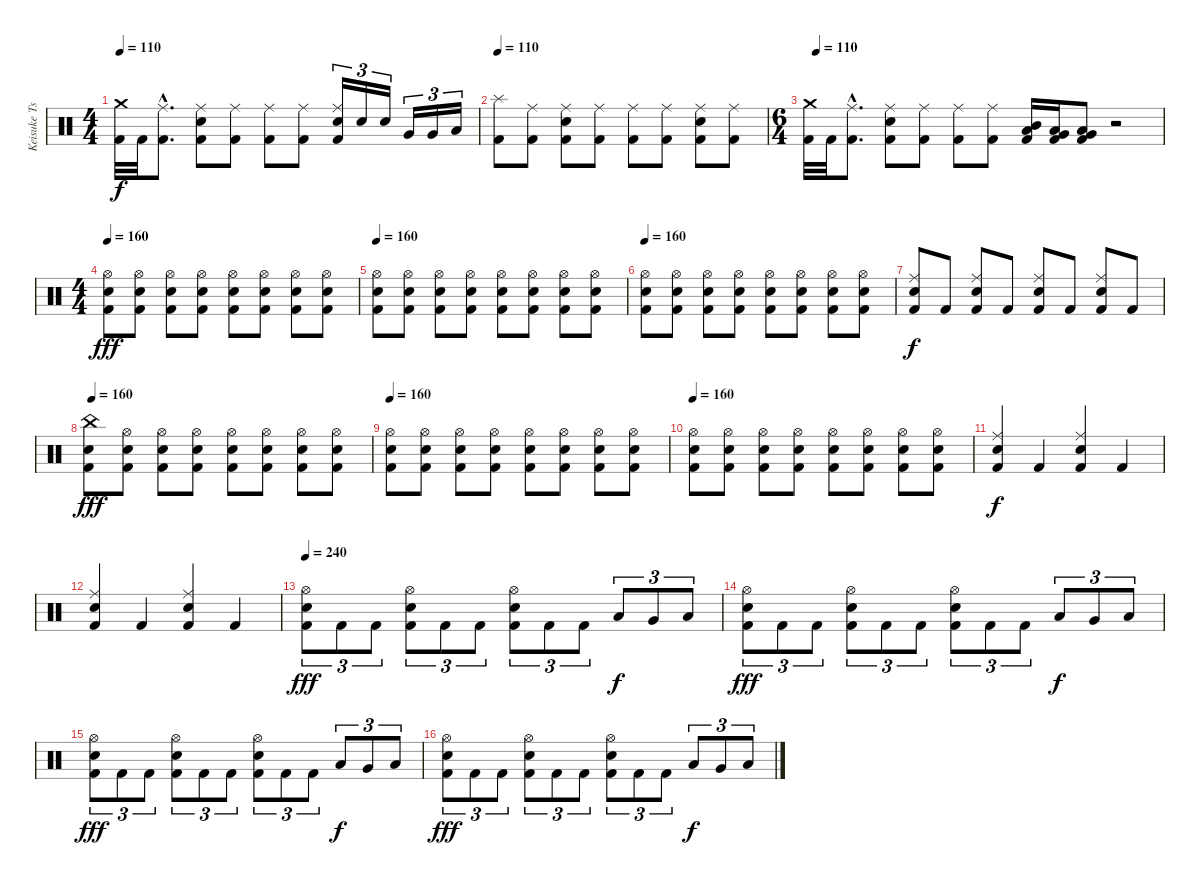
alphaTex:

\track ("Keisuke Tsuboi" "Keisuke Ts") {instrument percussion}
\staff {score}
\articulation defaults
\ts (4 4)
\tempo 110
\clef neutral
\ks c
("Crash medium (hit)" "Kick (hit) 2").32{dy f} "Kick (hit) 2".32 ("Ride (middle)"{hac} "Kick (hit) 2"{hac}).8{d} ("Ride (middle)" "Electric Snare (hit)" "Kick (hit) 2").8 ("Ride (middle)" "Kick (hit) 2").8 ("Ride (middle)" "Kick (hit) 2").8 ("Ride (middle)" "Kick (hit) 2").8 ("Ride (middle)" "Electric Snare (hit)" "Kick (hit) 2").16{tu (3 2)} "Electric Snare (hit)".16{tu (3 2)} "Electric Snare (hit)".16{tu (3 2)} "Very Low Tom (hit)".16{tu (3 2)} "Very Low Tom (hit)".16{tu (3 2)} "Low Floor Tom (hit)".16{tu (3 2)} |
\tempo 110
("Splash (hit)" "Kick (hit) 2").8 ("Ride (middle)" "Kick (hit) 2").8 ("Ride (middle)" "Electric Snare (hit)" "Kick (hit) 2").8 ("Ride (middle)" "Kick (hit) 2").8 ("Ride (middle)" "Kick (hit) 2").8 ("Ride (middle)" "Kick (hit) 2").8 ("Ride (middle)" "Electric Snare (hit)" "Kick (hit) 2").8 ("Ride (middle)" "Kick (hit) 2").8 |
\ts (6 4)
\tempo (110 0.020833333333333332)
("Crash medium (hit)" "Kick (hit) 2").32 "Kick (hit) 2".32 ("Ride (middle)"{hac} "Kick (hit) 2"{hac}).8{d} ("Ride (middle)" "Electric Snare (hit)" "Kick (hit) 2").8 ("Ride (middle)" "Kick (hit) 2").8 ("Ride (middle)" "Kick (hit) 2").8 ("Ride (middle)" "Kick (hit) 2").8 ("Kick (hit) 2" "Mid Tom (hit)" "Low Tom (hit)").16 ("Kick (hit) 2" "Low Tom (hit)" "Very Low Tom (hit)").16 ("Kick (hit) 2" "Very Low Tom (hit)" "Low Floor Tom (hit)").8 r.2 |
\ts (4 4)
\tempo 160
("Hi-Hat (open)" "Electric Snare (hit)" "Kick (hit) 2").8{dy fff} ("Hi-Hat (open)" "Electric Snare (hit)" "Kick (hit) 2").8 ("Hi-Hat (open)" "Electric Snare (hit)" "Kick (hit) 2").8 ("Hi-Hat (open)" "Electric Snare (hit)" "Kick (hit) 2").8 ("Hi-Hat (open)" "Electric Snare (hit)" "Kick (hit) 2").8 ("Hi-Hat (open)" "Electric Snare (hit)" "Kick (hit) 2").8 ("Hi-Hat (open)" "Electric Snare (hit)" "Kick (hit) 2").8 ("Hi-Hat (open)" "Electric Snare (hit)" "Kick (hit) 2").8 |
\tempo 160
("Hi-Hat (open)" "Electric Snare (hit)" "Kick (hit) 2").8 ("Hi-Hat (open)" "Electric Snare (hit)" "Kick (hit) 2").8 ("Hi-Hat (open)" "Electric Snare (hit)" "Kick (hit) 2").8 ("Hi-Hat (open)" "Electric Snare (hit)" "Kick (hit) 2").8 ("Hi-Hat (open)" "Electric Snare (hit)" "Kick (hit) 2").8 ("Hi-Hat (open)" "Electric Snare (hit)" "Kick (hit) 2").8 ("Hi-Hat (open)" "Electric Snare (hit)" "Kick (hit) 2").8 ("Hi-Hat (open)" "Electric Snare (hit)" "Kick (hit) 2").8 |
\tempo 160
("Hi-Hat (open)" "Electric Snare (hit)" "Kick (hit) 2").8 ("Hi-Hat (open)" "Electric Snare (hit)" "Kick (hit) 2").8 ("Hi-Hat (open)" "Electric Snare (hit)" "Kick (hit) 2").8 ("Hi-Hat (open)" "Electric Snare (hit)" "Kick (hit) 2").8 ("Hi-Hat (open)" "Electric Snare (hit)" "Kick (hit) 2").8 ("Hi-Hat (open)" "Electric Snare (hit)" "Kick (hit) 2").8 ("Hi-Hat (open)" "Electric Snare (hit)" "Kick (hit) 2").8 ("Hi-Hat (open)" "Electric Snare (hit)" "Kick (hit) 2").8 |
("Ride (middle)" "Electric Snare (hit)" "Kick (hit) 2").8{dy f} "Kick (hit) 2".8 ("Ride (middle)" "Electric Snare (hit)" "Kick (hit) 2").8 "Kick (hit) 2".8 ("Ride (middle)" "Electric Snare (hit)" "Kick (hit) 2").8 "Kick (hit) 2".8 ("Ride (middle)" "Electric Snare (hit)" "Kick (hit) 2").8 "Kick (hit) 2".8 |
\tempo 160
("China (hit)" "Electric Snare (hit)" "Kick (hit) 2").8{dy fff} ("Hi-Hat (open)" "Electric Snare (hit)" "Kick (hit) 2").8 ("Hi-Hat (open)" "Electric Snare (hit)" "Kick (hit) 2").8 ("Hi-Hat (open)" "Electric Snare (hit)" "Kick (hit) 2").8 ("Hi-Hat (open)" "Electric Snare (hit)" "Kick (hit) 2").8 ("Hi-Hat (open)" "Electric Snare (hit)" "Kick (hit) 2").8 ("Hi-Hat (open)" "Electric Snare (hit)" "Kick (hit) 2").8 ("Hi-Hat (open)" "Electric Snare (hit)" "Kick (hit) 2").8 |
\tempo 160
("Hi-Hat (open)" "Electric Snare (hit)" "Kick (hit) 2").8 ("Hi-Hat (open)" "Electric Snare (hit)" "Kick (hit) 2").8 ("Hi-Hat (open)" "Electric Snare (hit)" "Kick (hit) 2").8 ("Hi-Hat (open)" "Electric Snare (hit)" "Kick (hit) 2").8 ("Hi-Hat (open)" "Electric Snare (hit)" "Kick (hit) 2").8 ("Hi-Hat (open)" "Electric Snare (hit)" "Kick (hit) 2").8 ("Hi-Hat (open)" "Electric Snare (hit)" "Kick (hit) 2").8 ("Hi-Hat (open)" "Electric Snare (hit)" "Kick (hit) 2").8 |
\tempo 160
("Hi-Hat (open)" "Electric Snare (hit)" "Kick (hit) 2").8 ("Hi-Hat (open)" "Electric Snare (hit)" "Kick (hit) 2").8 ("Hi-Hat (open)" "Electric Snare (hit)" "Kick (hit) 2").8 ("Hi-Hat (open)" "Electric Snare (hit)" "Kick (hit) 2").8 ("Hi-Hat (open)" "Electric Snare (hit)" "Kick (hit) 2").8 ("Hi-Hat (open)" "Electric Snare (hit)" "Kick (hit) 2").8 ("Hi-Hat (open)" "Electric Snare (hit)" "Kick (hit) 2").8 ("Hi-Hat (open)" "Electric Snare (hit)" "Kick (hit) 2").8 |
("Ride (middle)" "Electric Snare (hit)" "Kick (hit) 2").4{dy f} "Kick (hit) 2".4 ("Ride (middle)" "Electric Snare (hit)" "Kick (hit) 2").4 "Kick (hit) 2".4 |
("Ride (middle)" "Electric Snare (hit)" "Kick (hit) 2").4 "Kick (hit) 2".4 ("Ride (middle)" "Electric Snare (hit)" "Kick (hit) 2").4 "Kick (hit) 2".4 |
\tempo 240
("Hi-Hat (open)" "Electric Snare (hit)" "Kick (hit) 2").8{tu (3 2) dy fff} "Kick (hit) 2".8{tu (3 2)} "Kick (hit) 2".8{tu (3 2)} ("Hi-Hat (open)" "Electric Snare (hit)" "Kick (hit) 2").8{tu (3 2)} "Kick (hit) 2".8{tu (3 2)} "Kick (hit) 2".8{tu (3 2)} ("Hi-Hat (open)" "Electric Snare (hit)" "Kick (hit) 2").8{tu (3 2)} "Kick (hit) 2".8{tu (3 2)} "Kick (hit) 2".8{tu (3 2)} "Low Tom (hit)".8{tu (3 2) dy f} "Very Low Tom (hit)".8{tu (3 2)} "Low Floor Tom (hit)".8{tu (3 2)} |
("Hi-Hat (open)" "Electric Snare (hit)" "Kick (hit) 2").8{tu (3 2) dy fff} "Kick (hit) 2".8{tu (3 2)} "Kick (hit) 2".8{tu (3 2)} ("Hi-Hat (open)" "Electric Snare (hit)" "Kick (hit) 2").8{tu (3 2)} "Kick (hit) 2".8{tu (3 2)} "Kick (hit) 2".8{tu (3 2)} ("Hi-Hat (open)" "Electric Snare (hit)" "Kick (hit) 2").8{tu (3 2)} "Kick (hit) 2".8{tu (3 2)} "Kick (hit) 2".8{tu (3 2)} "Low Tom (hit)".8{tu (3 2) dy f} "Very Low Tom (hit)".8{tu (3 2)} "Low Floor Tom (hit)".8{tu (3 2)} |
("Hi-Hat (open)" "Electric Snare (hit)" "Kick (hit) 2").8{tu (3 2) dy fff} "Kick (hit) 2".8{tu (3 2)} "Kick (hit) 2".8{tu (3 2)} ("Hi-Hat (open)" "Electric Snare (hit)" "Kick (hit) 2").8{tu (3 2)} "Kick (hit) 2".8{tu (3 2)} "Kick (hit) 2".8{tu (3 2)} ("Hi-Hat (open)" "Electric Snare (hit)" "Kick (hit) 2").8{tu (3 2)} "Kick (hit) 2".8{tu (3 2)} "Kick (hit) 2".8{tu (3 2)} "Low Tom (hit)".8{tu (3 2) dy f} "Very Low Tom (hit)".8{tu (3 2)} "Low Floor Tom (hit)".8{tu (3 2)} |
("Hi-Hat (open)" "Electric Snare (hit)" "Kick (hit) 2").8{tu (3 2) dy fff} "Kick (hit) 2".8{tu (3 2)} "Kick (hit) 2".8{tu (3 2)} ("Hi-Hat (open)" "Electric Snare (hit)" "Kick (hit) 2").8{tu (3 2)} "Kick (hit) 2".8{tu (3 2)} "Kick (hit) 2".8{tu (3 2)} ("Hi-Hat (open)" "Electric Snare (hit)" "Kick (hit) 2").8{tu (3 2)} "Kick (hit) 2".8{tu (3 2)} "Kick (hit) 2".8{tu (3 2)} "Low Tom (hit)".8{tu (3 2) dy f} "Very Low Tom (hit)".8{tu (3 2)} "Low Floor Tom (hit)".8{tu (3 2)}
